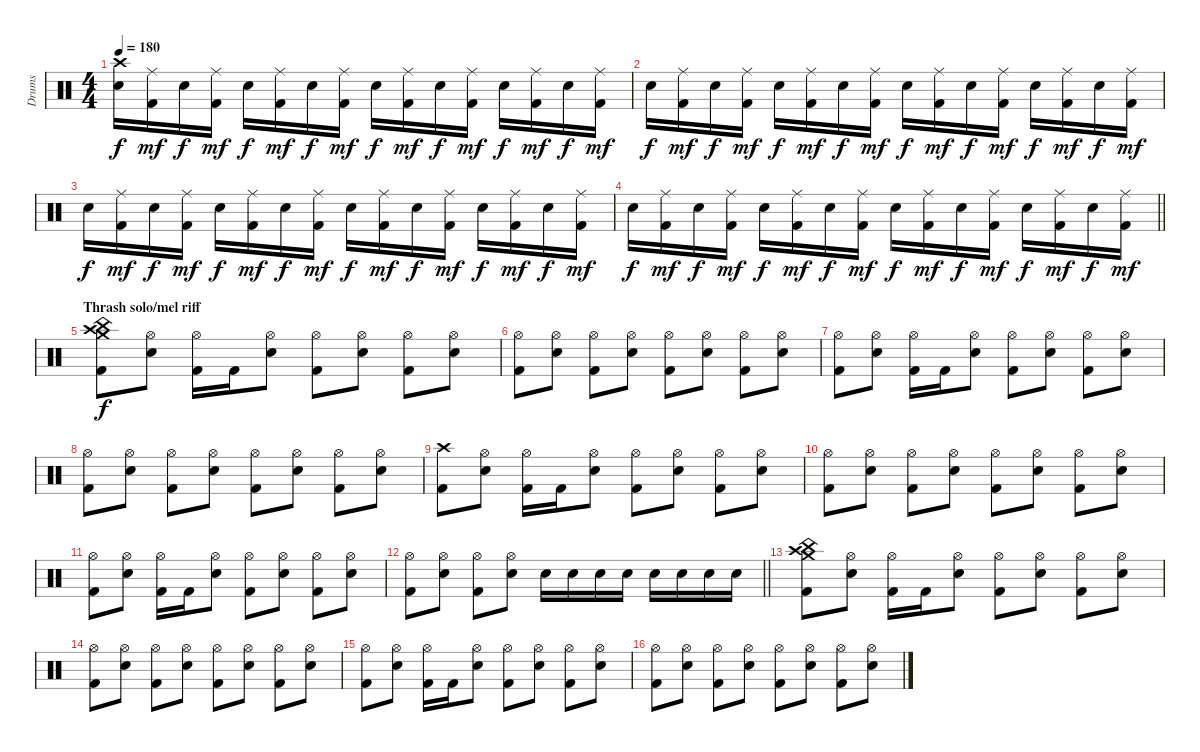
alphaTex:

\track ("Drums" "Drums") {instrument percussion}
\staff {score}
\articulation defaults
\ts (4 4)
\tempo 180
\clef neutral
\ks c
("Crash high (hit)" "Snare (hit) 2").16{dy f} ("Ride (middle)" "Kick (hit) 2").16{dy mf} "Snare (hit) 2".16{dy f} ("Ride (middle)" "Kick (hit) 2").16{dy mf} "Snare (hit) 2".16{dy f} ("Ride (middle)" "Kick (hit) 2").16{dy mf} "Snare (hit) 2".16{dy f} ("Ride (middle)" "Kick (hit) 2").16{dy mf} "Snare (hit) 2".16{dy f} ("Ride (middle)" "Kick (hit) 2").16{dy mf} "Snare (hit) 2".16{dy f} ("Ride (middle)" "Kick (hit) 2").16{dy mf} "Snare (hit) 2".16{dy f} ("Ride (middle)" "Kick (hit) 2").16{dy mf} "Snare (hit) 2".16{dy f} ("Ride (middle)" "Kick (hit) 2").16{dy mf} |
"Snare (hit) 2".16{dy f} ("Ride (middle)" "Kick (hit) 2").16{dy mf} "Snare (hit) 2".16{dy f} ("Ride (middle)" "Kick (hit) 2").16{dy mf} "Snare (hit) 2".16{dy f} ("Ride (middle)" "Kick (hit) 2").16{dy mf} "Snare (hit) 2".16{dy f} ("Ride (middle)" "Kick (hit) 2").16{dy mf} "Snare (hit) 2".16{dy f} ("Ride (middle)" "Kick (hit) 2").16{dy mf} "Snare (hit) 2".16{dy f} ("Ride (middle)" "Kick (hit) 2").16{dy mf} "Snare (hit) 2".16{dy f} ("Ride (middle)" "Kick (hit) 2").16{dy mf} "Snare (hit) 2".16{dy f} ("Ride (middle)" "Kick (hit) 2").16{dy mf} |
"Snare (hit) 2".16{dy f} ("Ride (middle)" "Kick (hit) 2").16{dy mf} "Snare (hit) 2".16{dy f} ("Ride (middle)" "Kick (hit) 2").16{dy mf} "Snare (hit) 2".16{dy f} ("Ride (middle)" "Kick (hit) 2").16{dy mf} "Snare (hit) 2".16{dy f} ("Ride (middle)" "Kick (hit) 2").16{dy mf} "Snare (hit) 2".16{dy f} ("Ride (middle)" "Kick (hit) 2").16{dy mf} "Snare (hit) 2".16{dy f} ("Ride (middle)" "Kick (hit) 2").16{dy mf} "Snare (hit) 2".16{dy f} ("Ride (middle)" "Kick (hit) 2").16{dy mf} "Snare (hit) 2".16{dy f} ("Ride (middle)" "Kick (hit) 2").16{dy mf} |
\barLineRight lightlight "Snare (hit) 2".16{dy f}
("Ride (middle)" "Kick (hit) 2").16{dy mf} "Snare (hit) 2".16{dy f} ("Ride (middle)" "Kick (hit) 2").16{dy mf} "Snare (hit) 2".16{dy f} ("Ride (middle)" "Kick (hit) 2").16{dy mf} "Snare (hit) 2".16{dy f} ("Ride (middle)" "Kick (hit) 2").16{dy mf} "Snare (hit) 2".16{dy f} ("Ride (middle)" "Kick (hit) 2").16{dy mf} "Snare (hit) 2".16{dy f} ("Ride (middle)" "Kick (hit) 2").16{dy mf} "Snare (hit) 2".16{dy f} ("Ride (middle)" "Kick (hit) 2").16{dy mf} "Snare (hit) 2".16{dy f} ("Ride (middle)" "Kick (hit) 2").16{dy mf} |
\section ("" "Thrash solo/mel riff")
("Crash medium (hit)" "Crash high (hit)" "China (hit)" "Kick (hit) 2").8{dy f} ("Hi-Hat (open)" "Snare (hit) 2").8 ("Hi-Hat (open)" "Kick (hit) 2").16 "Kick (hit) 2".16 ("Hi-Hat (open)" "Snare (hit) 2").8 ("Hi-Hat (open)" "Kick (hit) 2").8 ("Hi-Hat (open)" "Snare (hit) 2").8 ("Hi-Hat (open)" "Kick (hit) 2").8 ("Hi-Hat (open)" "Snare (hit) 2").8 |
("Hi-Hat (open)" "Kick (hit) 2").8 ("Hi-Hat (open)" "Snare (hit) 2").8 ("Hi-Hat (open)" "Kick (hit) 2").8 ("Hi-Hat (open)" "Snare (hit) 2").8 ("Hi-Hat (open)" "Kick (hit) 2").8 ("Hi-Hat (open)" "Snare (hit) 2").8 ("Hi-Hat (open)" "Kick (hit) 2").8 ("Hi-Hat (open)" "Snare (hit) 2").8 |
("Hi-Hat (open)" "Kick (hit) 2").8 ("Hi-Hat (open)" "Snare (hit) 2").8 ("Hi-Hat (open)" "Kick (hit) 2").16 "Kick (hit) 2".16 ("Hi-Hat (open)" "Snare (hit) 2").8 ("Hi-Hat (open)" "Kick (hit) 2").8 ("Hi-Hat (open)" "Snare (hit) 2").8 ("Hi-Hat (open)" "Kick (hit) 2").8 ("Hi-Hat (open)" "Snare (hit) 2").8 |
("Hi-Hat (open)" "Kick (hit) 2").8 ("Hi-Hat (open)" "Snare (hit) 2").8 ("Hi-Hat (open)" "Kick (hit) 2").8 ("Hi-Hat (open)" "Snare (hit) 2").8 ("Hi-Hat (open)" "Kick (hit) 2").8 ("Hi-Hat (open)" "Snare (hit) 2").8 ("Hi-Hat (open)" "Kick (hit) 2").8 ("Hi-Hat (open)" "Snare (hit) 2").8 |
("Crash high (hit)" "Kick (hit) 2").8 ("Hi-Hat (open)" "Snare (hit) 2").8 ("Hi-Hat (open)" "Kick (hit) 2").16 "Kick (hit) 2".16 ("Hi-Hat (open)" "Snare (hit) 2").8 ("Hi-Hat (open)" "Kick (hit) 2").8 ("Hi-Hat (open)" "Snare (hit) 2").8 ("Hi-Hat (open)" "Kick (hit) 2").8 ("Hi-Hat (open)" "Snare (hit) 2").8 |
("Hi-Hat (open)" "Kick (hit) 2").8 ("Hi-Hat (open)" "Snare (hit) 2").8 ("Hi-Hat (open)" "Kick (hit) 2").8 ("Hi-Hat (open)" "Snare (hit) 2").8 ("Hi-Hat (open)" "Kick (hit) 2").8 ("Hi-Hat (open)" "Snare (hit) 2").8 ("Hi-Hat (open)" "Kick (hit) 2").8 ("Hi-Hat (open)" "Snare (hit) 2").8 |
("Hi-Hat (open)" "Kick (hit) 2").8 ("Hi-Hat (open)" "Snare (hit) 2").8 ("Hi-Hat (open)" "Kick (hit) 2").16 "Kick (hit) 2".16 ("Hi-Hat (open)" "Snare (hit) 2").8 ("Hi-Hat (open)" "Kick (hit) 2").8 ("Hi-Hat (open)" "Snare (hit) 2").8 ("Hi-Hat (open)" "Kick (hit) 2").8 ("Hi-Hat (open)" "Snare (hit) 2").8 |
\barLineRight lightlight
("Hi-Hat (open)" "Kick (hit) 2").8 ("Hi-Hat (open)" "Snare (hit) 2").8 ("Hi-Hat (open)" "Kick (hit) 2").8 ("Hi-Hat (open)" "Snare (hit) 2").8 "Snare (hit) 2".16 "Snare (hit) 2".16 "Snare (hit) 2".16 "Snare (hit) 2".16 "Snare (hit) 2".16 "Snare (hit) 2".16 "Snare (hit) 2".16 "Snare (hit) 2".16 |
("Crash medium (hit)" "Crash high (hit)" "China (hit)" "Kick (hit) 2").8 ("Hi-Hat (open)" "Snare (hit) 2").8 ("Hi-Hat (open)" "Kick (hit) 2").16 "Kick (hit) 2".16 ("Hi-Hat (open)" "Snare (hit) 2").8 ("Hi-Hat (open)" "Kick (hit) 2").8 ("Hi-Hat (open)" "Snare (hit) 2").8 ("Hi-Hat (open)" "Kick (hit) 2").8 ("Hi-Hat (open)" "Snare (hit) 2").8 |
("Hi-Hat (open)" "Kick (hit) 2").8 ("Hi-Hat (open)" "Snare (hit) 2").8 ("Hi-Hat (open)" "Kick (hit) 2").8 ("Hi-Hat (open)" "Snare (hit) 2").8 ("Hi-Hat (open)" "Kick (hit) 2").8 ("Hi-Hat (open)" "Snare (hit) 2").8 ("Hi-Hat (open)" "Kick (hit) 2").8 ("Hi-Hat (open)" "Snare (hit) 2").8 |
("Hi-Hat (open)" "Kick (hit) 2").8 ("Hi-Hat (open)" "Snare (hit) 2").8 ("Hi-Hat (open)" "Kick (hit) 2").16 "Kick (hit) 2".16 ("Hi-Hat (open)" "Snare (hit) 2").8 ("Hi-Hat (open)" "Kick (hit) 2").8 ("Hi-Hat (open)" "Snare (hit) 2").8 ("Hi-Hat (open)" "Kick (hit) 2").8 ("Hi-Hat (open)" "Snare (hit) 2").8 |
("Hi-Hat (open)" "Kick (hit) 2").8 ("Hi-Hat (open)" "Snare (hit) 2").8 ("Hi-Hat (open)" "Kick (hit) 2").8 ("Hi-Hat (open)" "Snare (hit) 2").8 ("Hi-Hat (open)" "Kick (hit) 2").8 ("Hi-Hat (open)" "Snare (hit) 2").8 ("Hi-Hat (open)" "Kick (hit) 2").8 ("Hi-Hat (open)" "Snare (hit) 2").8
